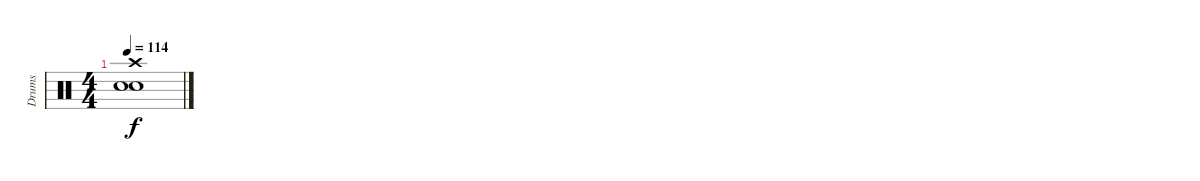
\track ("Drums" "Drums") {instrument percussion}
\staff {score}
\articulation defaults
\ts (4 4)
\tempo 114
\clef neutral
\ks c
("Electric Snare (hit)" "Crash high (hit)" "Hand Clap (hit)").1{dy f}
